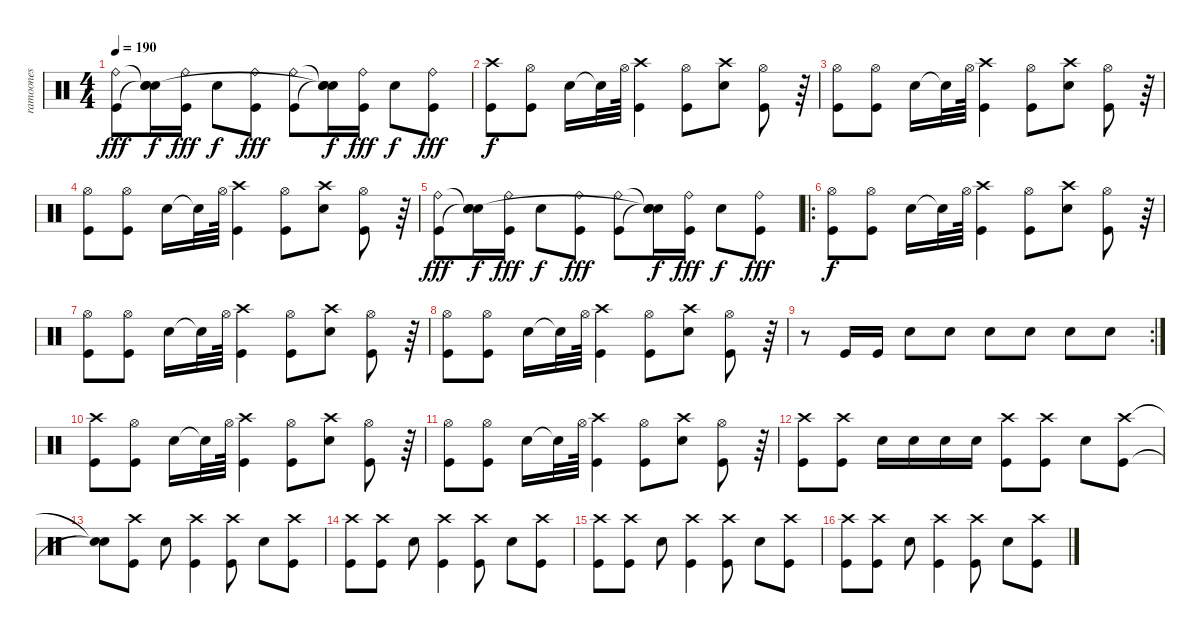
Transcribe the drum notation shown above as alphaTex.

\track ("ramoones" "ramoones") {instrument percussion}
\staff {score}
\articulation defaults
\ts (4 4)
\tempo 190
\clef neutral
\ks c
("Ride (bell)" "Kick (hit)").8{dy fff} ("Snare (hit)"{t} "Snare (hit)"{t} "Snare (hit)").16{dy f} ("Ride (bell)" "Kick (hit)").16{dy fff} "Electric Snare (hit)".8{dy f} ("Ride (bell)" "Kick (hit)").8{dy fff} ("Ride (bell)" "Kick (hit)").8 ("Snare (hit)"{t} "Snare (hit)"{t} "Snare (hit)"{t}).16{dy f} ("Ride (bell)" "Kick (hit)").16{dy fff} "Electric Snare (hit)".8{dy f} ("Ride (bell)" "Kick (hit)").8{dy fff} |
("Crash high (hit)" "Kick (hit)").8{dy f} ("Hi-Hat (open)" "Kick (hit)").8 "Electric Snare (hit)".16 "Snare (hit)"{t}.32 "Hi-Hat (open)".64 ("Crash high (hit)" "Kick (hit)").4 ("Hi-Hat (open)" "Kick (hit)").8 ("Crash high (hit)" "Electric Snare (hit)").8 ("Hi-Hat (open)" "Kick (hit)").8 r.64 |
("Hi-Hat (open)" "Kick (hit)").8 ("Hi-Hat (open)" "Kick (hit)").8 "Electric Snare (hit)".16 "Snare (hit)"{t}.32 "Hi-Hat (open)".64 ("Crash high (hit)" "Kick (hit)").4 ("Hi-Hat (open)" "Kick (hit)").8 ("Crash high (hit)" "Electric Snare (hit)").8 ("Hi-Hat (open)" "Kick (hit)").8 r.64 |
("Hi-Hat (open)" "Kick (hit)").8 ("Hi-Hat (open)" "Kick (hit)").8 "Electric Snare (hit)".16 "Snare (hit)"{t}.32 "Hi-Hat (open)".64 ("Crash high (hit)" "Kick (hit)").4 ("Hi-Hat (open)" "Kick (hit)").8 ("Crash high (hit)" "Electric Snare (hit)").8 ("Hi-Hat (open)" "Kick (hit)").8 r.64 |
("Ride (bell)" "Kick (hit)").8{dy fff} ("Snare (hit)"{t} "Snare (hit)"{t} "Snare (hit)").16{dy f} ("Ride (bell)" "Kick (hit)").16{dy fff} "Electric Snare (hit)".8{dy f} ("Ride (bell)" "Kick (hit)").8{dy fff} ("Ride (bell)" "Kick (hit)").8 ("Snare (hit)"{t} "Snare (hit)"{t} "Snare (hit)"{t}).16{dy f} ("Ride (bell)" "Kick (hit)").16{dy fff} "Electric Snare (hit)".8{dy f} ("Ride (bell)" "Kick (hit)").8{dy fff} |
\ro
("Hi-Hat (open)" "Kick (hit)").8{dy f} ("Hi-Hat (open)" "Kick (hit)").8 "Electric Snare (hit)".16 "Snare (hit)"{t}.32 "Hi-Hat (open)".64 ("Crash high (hit)" "Kick (hit)").4 ("Hi-Hat (open)" "Kick (hit)").8 ("Crash high (hit)" "Electric Snare (hit)").8 ("Hi-Hat (open)" "Kick (hit)").8 r.64 |
("Hi-Hat (open)" "Kick (hit)").8 ("Hi-Hat (open)" "Kick (hit)").8 "Electric Snare (hit)".16 "Snare (hit)"{t}.32 "Hi-Hat (open)".64 ("Crash high (hit)" "Kick (hit)").4 ("Hi-Hat (open)" "Kick (hit)").8 ("Crash high (hit)" "Electric Snare (hit)").8 ("Hi-Hat (open)" "Kick (hit)").8 r.64 |
("Hi-Hat (open)" "Kick (hit)").8 ("Hi-Hat (open)" "Kick (hit)").8 "Electric Snare (hit)".16 "Snare (hit)"{t}.32 "Hi-Hat (open)".64 ("Crash high (hit)" "Kick (hit)").4 ("Hi-Hat (open)" "Kick (hit)").8 ("Crash high (hit)" "Electric Snare (hit)").8 ("Hi-Hat (open)" "Kick (hit)").8 r.64 |
\rc 2
r.8 "Kick (hit)".16 "Kick (hit)".16 "Electric Snare (hit)".8 "Electric Snare (hit)".8 "Electric Snare (hit)".8 "Electric Snare (hit)".8 "Electric Snare (hit)".8 "Electric Snare (hit)".8 |
("Crash high (hit)" "Kick (hit)").8 ("Hi-Hat (open)" "Kick (hit)").8 "Electric Snare (hit)".16 "Snare (hit)"{t}.32 "Hi-Hat (open)".64 ("Crash high (hit)" "Kick (hit)").4 ("Hi-Hat (open)" "Kick (hit)").8 ("Crash high (hit)" "Electric Snare (hit)").8 ("Hi-Hat (open)" "Kick (hit)").8 r.64 |
("Hi-Hat (open)" "Kick (hit)").8 ("Hi-Hat (open)" "Kick (hit)").8 "Electric Snare (hit)".16 "Snare (hit)"{t}.32 "Hi-Hat (open)".64 ("Crash high (hit)" "Kick (hit)").4 ("Hi-Hat (open)" "Kick (hit)").8 ("Crash high (hit)" "Electric Snare (hit)").8 ("Hi-Hat (open)" "Kick (hit)").8 r.64 |
("Crash high (hit)" "Kick (hit)").8 ("Crash high (hit)" "Kick (hit)").8 "Electric Snare (hit)".16 "Electric Snare (hit)".16 "Electric Snare (hit)".16 "Electric Snare (hit)".16 ("Crash high (hit)" "Kick (hit)").8 ("Crash high (hit)" "Kick (hit)").8 "Electric Snare (hit)".8 ("Crash high (hit)" "Kick (hit)").8 |
("Snare (hit)"{t} "Snare (hit)"{t}).8 ("Crash high (hit)" "Kick (hit)").8 "Electric Snare (hit)".8 ("Crash high (hit)" "Kick (hit)").4 ("Crash high (hit)" "Kick (hit)").8 "Electric Snare (hit)".8 ("Crash high (hit)" "Kick (hit)").8 |
("Crash high (hit)" "Kick (hit)").8 ("Crash high (hit)" "Kick (hit)").8 "Electric Snare (hit)".8 ("Crash high (hit)" "Kick (hit)").4 ("Crash high (hit)" "Kick (hit)").8 "Electric Snare (hit)".8 ("Crash high (hit)" "Kick (hit)").8 |
("Crash high (hit)" "Kick (hit)").8 ("Crash high (hit)" "Kick (hit)").8 "Electric Snare (hit)".8 ("Crash high (hit)" "Kick (hit)").4 ("Crash high (hit)" "Kick (hit)").8 "Electric Snare (hit)".8 ("Crash high (hit)" "Kick (hit)").8 |
("Crash high (hit)" "Kick (hit)").8 ("Crash high (hit)" "Kick (hit)").8 "Electric Snare (hit)".8 ("Crash high (hit)" "Kick (hit)").4 ("Crash high (hit)" "Kick (hit)").8 "Electric Snare (hit)".8 ("Crash high (hit)" "Kick (hit)").8
